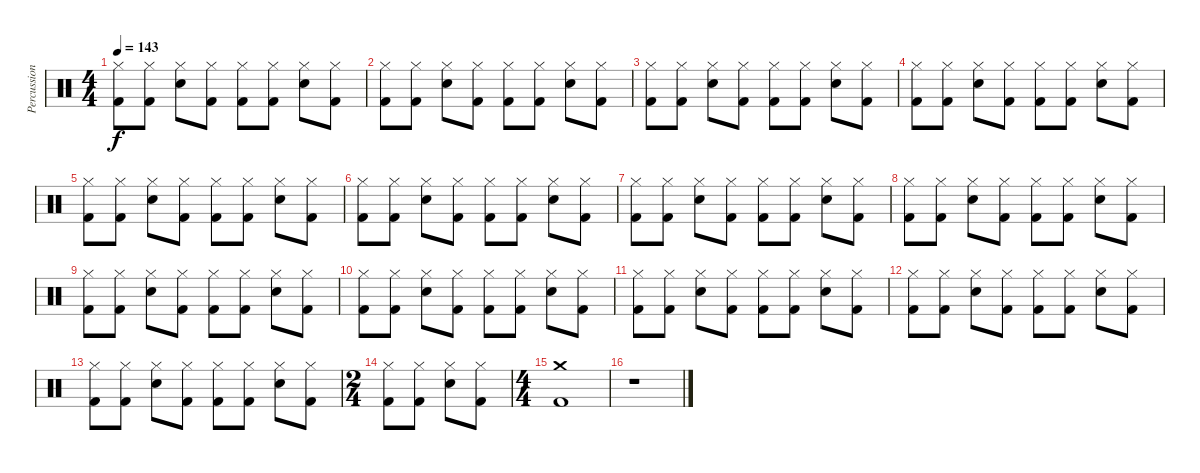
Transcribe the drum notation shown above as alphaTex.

\track ("Percussion" "Percussion") {instrument percussion}
\staff {score}
\articulation defaults
\ts (4 4)
\tempo 143
\clef neutral
\ks c
("Hi-Hat (closed)" "Kick (hit) 2").8{dy f} ("Hi-Hat (closed)" "Kick (hit) 2").8 ("Hi-Hat (closed)" "Electric Snare (hit)").8 ("Hi-Hat (closed)" "Kick (hit) 2").8 ("Hi-Hat (closed)" "Kick (hit) 2").8 ("Hi-Hat (closed)" "Kick (hit) 2").8 ("Hi-Hat (closed)" "Electric Snare (hit)").8 ("Hi-Hat (closed)" "Kick (hit) 2").8 |
("Hi-Hat (closed)" "Kick (hit) 2").8 ("Hi-Hat (closed)" "Kick (hit) 2").8 ("Hi-Hat (closed)" "Electric Snare (hit)").8 ("Hi-Hat (closed)" "Kick (hit) 2").8 ("Hi-Hat (closed)" "Kick (hit) 2").8 ("Hi-Hat (closed)" "Kick (hit) 2").8 ("Hi-Hat (closed)" "Electric Snare (hit)").8 ("Hi-Hat (closed)" "Kick (hit) 2").8 |
("Hi-Hat (closed)" "Kick (hit) 2").8 ("Hi-Hat (closed)" "Kick (hit) 2").8 ("Hi-Hat (closed)" "Electric Snare (hit)").8 ("Hi-Hat (closed)" "Kick (hit) 2").8 ("Hi-Hat (closed)" "Kick (hit) 2").8 ("Hi-Hat (closed)" "Kick (hit) 2").8 ("Hi-Hat (closed)" "Electric Snare (hit)").8 ("Hi-Hat (closed)" "Kick (hit) 2").8 |
("Hi-Hat (closed)" "Kick (hit) 2").8 ("Hi-Hat (closed)" "Kick (hit) 2").8 ("Hi-Hat (closed)" "Electric Snare (hit)").8 ("Hi-Hat (closed)" "Kick (hit) 2").8 ("Hi-Hat (closed)" "Kick (hit) 2").8 ("Hi-Hat (closed)" "Kick (hit) 2").8 ("Hi-Hat (closed)" "Electric Snare (hit)").8 ("Hi-Hat (closed)" "Kick (hit) 2").8 |
("Hi-Hat (closed)" "Kick (hit) 2").8 ("Hi-Hat (closed)" "Kick (hit) 2").8 ("Hi-Hat (closed)" "Electric Snare (hit)").8 ("Hi-Hat (closed)" "Kick (hit) 2").8 ("Hi-Hat (closed)" "Kick (hit) 2").8 ("Hi-Hat (closed)" "Kick (hit) 2").8 ("Hi-Hat (closed)" "Electric Snare (hit)").8 ("Hi-Hat (closed)" "Kick (hit) 2").8 |
("Hi-Hat (closed)" "Kick (hit) 2").8 ("Hi-Hat (closed)" "Kick (hit) 2").8 ("Hi-Hat (closed)" "Electric Snare (hit)").8 ("Hi-Hat (closed)" "Kick (hit) 2").8 ("Hi-Hat (closed)" "Kick (hit) 2").8 ("Hi-Hat (closed)" "Kick (hit) 2").8 ("Hi-Hat (closed)" "Electric Snare (hit)").8 ("Hi-Hat (closed)" "Kick (hit) 2").8 |
("Hi-Hat (closed)" "Kick (hit) 2").8 ("Hi-Hat (closed)" "Kick (hit) 2").8 ("Hi-Hat (closed)" "Electric Snare (hit)").8 ("Hi-Hat (closed)" "Kick (hit) 2").8 ("Hi-Hat (closed)" "Kick (hit) 2").8 ("Hi-Hat (closed)" "Kick (hit) 2").8 ("Hi-Hat (closed)" "Electric Snare (hit)").8 ("Hi-Hat (closed)" "Kick (hit) 2").8 |
("Hi-Hat (closed)" "Kick (hit) 2").8 ("Hi-Hat (closed)" "Kick (hit) 2").8 ("Hi-Hat (closed)" "Electric Snare (hit)").8 ("Hi-Hat (closed)" "Kick (hit) 2").8 ("Hi-Hat (closed)" "Kick (hit) 2").8 ("Hi-Hat (closed)" "Kick (hit) 2").8 ("Hi-Hat (closed)" "Electric Snare (hit)").8 ("Hi-Hat (closed)" "Kick (hit) 2").8 |
("Hi-Hat (closed)" "Kick (hit) 2").8 ("Hi-Hat (closed)" "Kick (hit) 2").8 ("Hi-Hat (closed)" "Electric Snare (hit)").8 ("Hi-Hat (closed)" "Kick (hit) 2").8 ("Hi-Hat (closed)" "Kick (hit) 2").8 ("Hi-Hat (closed)" "Kick (hit) 2").8 ("Hi-Hat (closed)" "Electric Snare (hit)").8 ("Hi-Hat (closed)" "Kick (hit) 2").8 |
("Hi-Hat (closed)" "Kick (hit) 2").8 ("Hi-Hat (closed)" "Kick (hit) 2").8 ("Hi-Hat (closed)" "Electric Snare (hit)").8 ("Hi-Hat (closed)" "Kick (hit) 2").8 ("Hi-Hat (closed)" "Kick (hit) 2").8 ("Hi-Hat (closed)" "Kick (hit) 2").8 ("Hi-Hat (closed)" "Electric Snare (hit)").8 ("Hi-Hat (closed)" "Kick (hit) 2").8 |
("Hi-Hat (closed)" "Kick (hit) 2").8 ("Hi-Hat (closed)" "Kick (hit) 2").8 ("Hi-Hat (closed)" "Electric Snare (hit)").8 ("Hi-Hat (closed)" "Kick (hit) 2").8 ("Hi-Hat (closed)" "Kick (hit) 2").8 ("Hi-Hat (closed)" "Kick (hit) 2").8 ("Hi-Hat (closed)" "Electric Snare (hit)").8 ("Hi-Hat (closed)" "Kick (hit) 2").8 |
("Hi-Hat (closed)" "Kick (hit) 2").8 ("Hi-Hat (closed)" "Kick (hit) 2").8 ("Hi-Hat (closed)" "Electric Snare (hit)").8 ("Hi-Hat (closed)" "Kick (hit) 2").8 ("Hi-Hat (closed)" "Kick (hit) 2").8 ("Hi-Hat (closed)" "Kick (hit) 2").8 ("Hi-Hat (closed)" "Electric Snare (hit)").8 ("Hi-Hat (closed)" "Kick (hit) 2").8 |
("Hi-Hat (closed)" "Kick (hit) 2").8 ("Hi-Hat (closed)" "Kick (hit) 2").8 ("Hi-Hat (closed)" "Electric Snare (hit)").8 ("Hi-Hat (closed)" "Kick (hit) 2").8 ("Hi-Hat (closed)" "Kick (hit) 2").8 ("Hi-Hat (closed)" "Kick (hit) 2").8 ("Hi-Hat (closed)" "Electric Snare (hit)").8 ("Hi-Hat (closed)" "Kick (hit) 2").8 |
\ts (2 4)
("Hi-Hat (closed)" "Kick (hit) 2").8 ("Hi-Hat (closed)" "Kick (hit) 2").8 ("Hi-Hat (closed)" "Electric Snare (hit)").8 ("Hi-Hat (closed)" "Kick (hit) 2").8 |
\ts (4 4)
("Crash medium (hit)" "Kick (hit) 2").1 |
r.1
